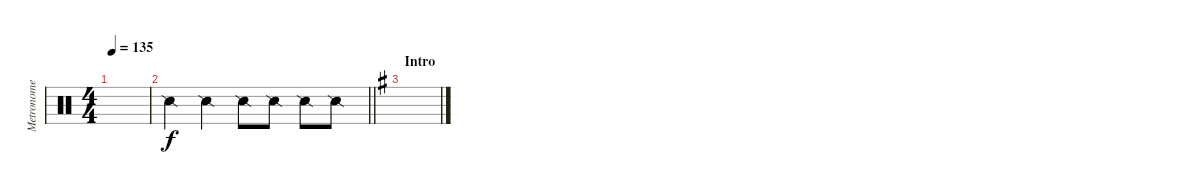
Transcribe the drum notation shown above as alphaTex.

\track ("Metronome" "Metronome") {instrument percussion}
\staff {score}
\articulation defaults
\ts (4 4)
\tempo 135
\clef neutral
\ks c
|
\barLineRight lightlight "Snare (side stick) 2".4 "Snare (side stick) 2".4 "Snare (side stick) 2".8 "Snare (side stick) 2".8 "Snare (side stick) 2".8 "Snare (side stick) 2".8
|
\section ("" "Intro")
\ks g
